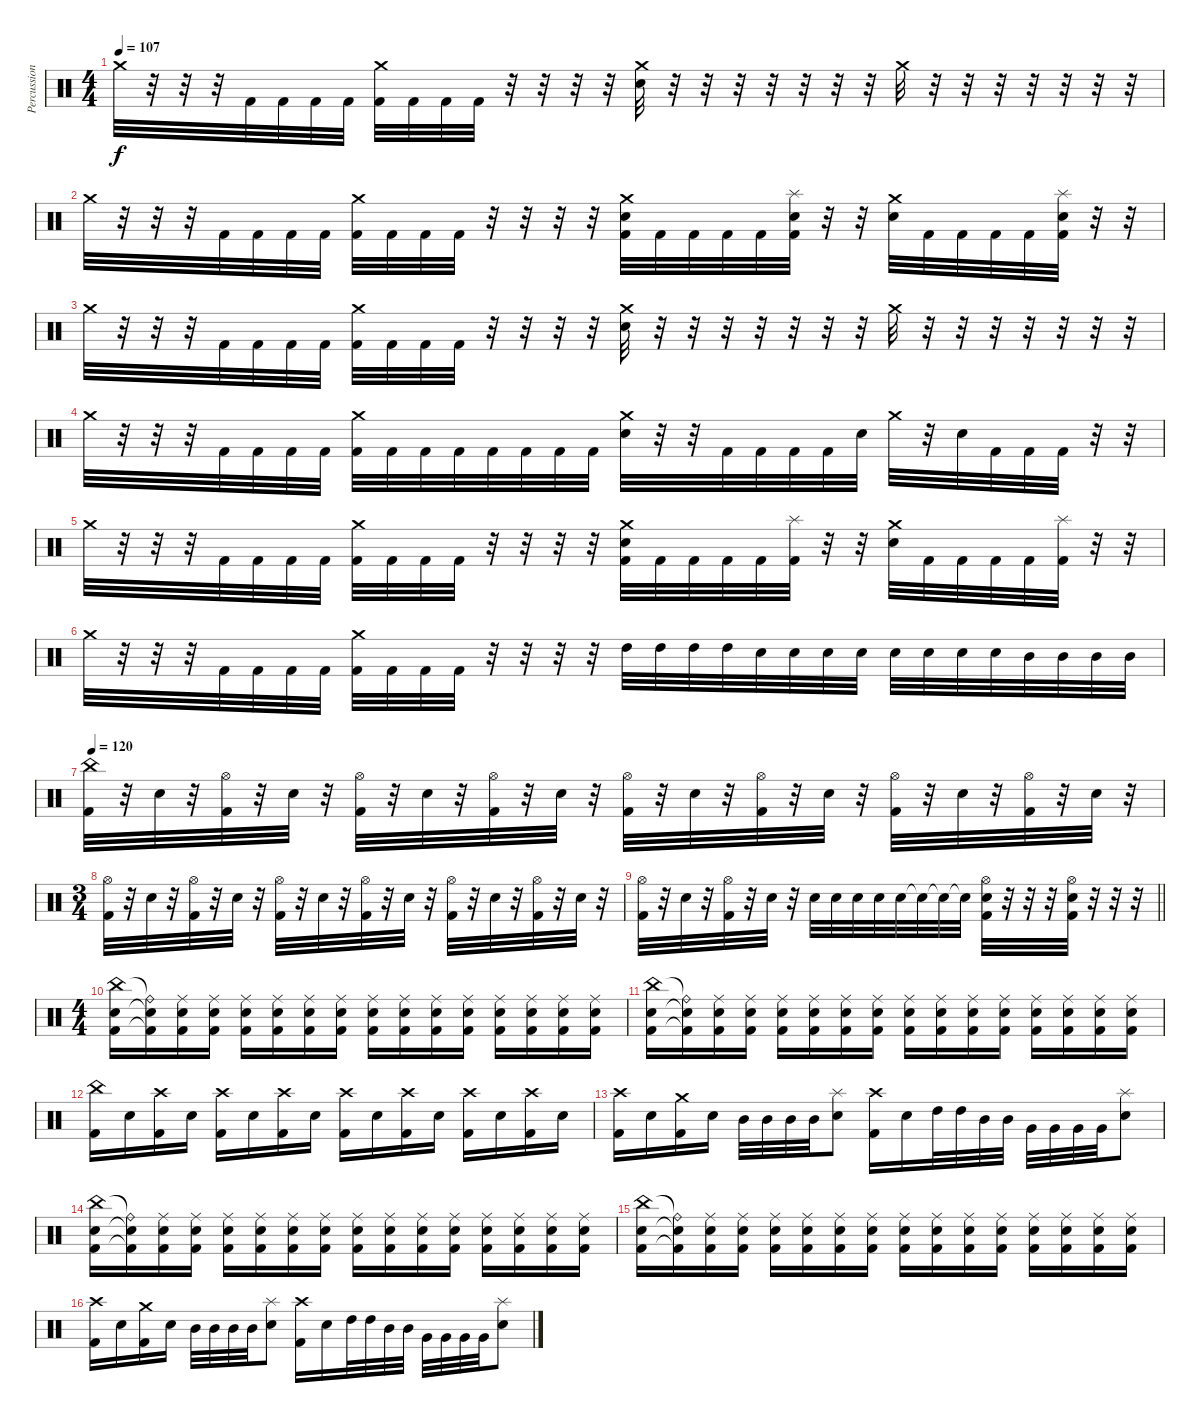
\track ("Percussion" "Percussion") {instrument percussion}
\staff {score}
\articulation defaults
\ts (4 4)
\tempo 107
\clef neutral
\ks c "Crash medium (hit)".32{dy f}
r.32 r.32 r.32 "Kick (hit) 2".32 "Kick (hit) 2".32 "Kick (hit) 2".32 "Kick (hit) 2".32 ("Kick (hit) 2" "Crash medium (hit)").32 "Kick (hit) 2".32 "Kick (hit) 2".32 "Kick (hit) 2".32 r.32 r.32 r.32 r.32 ("Electric Snare (hit)" "Crash medium (hit)").32 r.32 r.32 r.32 r.32 r.32 r.32 r.32 "Crash medium (hit)".32 r.32 r.32 r.32 r.32 r.32 r.32 r.32 |
"Crash medium (hit)".32 r.32 r.32 r.32 "Kick (hit) 2".32 "Kick (hit) 2".32 "Kick (hit) 2".32 "Kick (hit) 2".32 ("Kick (hit) 2" "Crash medium (hit)").32 "Kick (hit) 2".32 "Kick (hit) 2".32 "Kick (hit) 2".32 r.32 r.32 r.32 r.32 ("Kick (hit) 2" "Electric Snare (hit)" "Crash medium (hit)").32 "Kick (hit) 2".32 "Kick (hit) 2".32 "Kick (hit) 2".32 "Kick (hit) 2".32 ("Kick (hit) 2" "Electric Snare (hit)" "Splash (hit)").32 r.32 r.32 ("Electric Snare (hit)" "Crash medium (hit)").32 "Kick (hit) 2".32 "Kick (hit) 2".32 "Kick (hit) 2".32 "Kick (hit) 2".32 ("Kick (hit) 2" "Splash (hit)" "Electric Snare (hit)").32 r.32 r.32 |
"Crash medium (hit)".32 r.32 r.32 r.32 "Kick (hit) 2".32 "Kick (hit) 2".32 "Kick (hit) 2".32 "Kick (hit) 2".32 ("Kick (hit) 2" "Crash medium (hit)").32 "Kick (hit) 2".32 "Kick (hit) 2".32 "Kick (hit) 2".32 r.32 r.32 r.32 r.32 ("Electric Snare (hit)" "Crash medium (hit)").32 r.32 r.32 r.32 r.32 r.32 r.32 r.32 "Crash medium (hit)".32 r.32 r.32 r.32 r.32 r.32 r.32 r.32 |
"Crash medium (hit)".32 r.32 r.32 r.32 "Kick (hit) 2".32 "Kick (hit) 2".32 "Kick (hit) 2".32 "Kick (hit) 2".32 ("Kick (hit) 2" "Crash medium (hit)").32 "Kick (hit) 2".32 "Kick (hit) 2".32 "Kick (hit) 2".32 "Kick (hit) 2".32 "Kick (hit) 2".32 "Kick (hit) 2".32 "Kick (hit) 2".32 ("Electric Snare (hit)" "Crash medium (hit)").32 r.32 r.32 "Kick (hit) 2".32 "Kick (hit) 2".32 "Kick (hit) 2".32 "Kick (hit) 2".32 "Electric Snare (hit)".32 "Crash medium (hit)".32 r.32 "Electric Snare (hit)".32 "Kick (hit) 2".32 "Kick (hit) 2".32 "Kick (hit) 2".32 r.32 r.32 |
"Crash medium (hit)".32 r.32 r.32 r.32 "Kick (hit) 2".32 "Kick (hit) 2".32 "Kick (hit) 2".32 "Kick (hit) 2".32 ("Kick (hit) 2" "Crash medium (hit)").32 "Kick (hit) 2".32 "Kick (hit) 2".32 "Kick (hit) 2".32 r.32 r.32 r.32 r.32 ("Kick (hit) 2" "Electric Snare (hit)" "Crash medium (hit)").32 "Kick (hit) 2".32 "Kick (hit) 2".32 "Kick (hit) 2".32 "Kick (hit) 2".32 ("Kick (hit) 2" "Splash (hit)").32 r.32 r.32 ("Electric Snare (hit)" "Crash medium (hit)").32 "Kick (hit) 2".32 "Kick (hit) 2".32 "Kick (hit) 2".32 "Kick (hit) 2".32 ("Kick (hit) 2" "Splash (hit)").32 r.32 r.32 |
"Crash medium (hit)".32 r.32 r.32 r.32 "Kick (hit) 2".32 "Kick (hit) 2".32 "Kick (hit) 2".32 "Kick (hit) 2".32 ("Kick (hit) 2" "Crash medium (hit)").32 "Kick (hit) 2".32 "Kick (hit) 2".32 "Kick (hit) 2".32 r.32 r.32 r.32 r.32 "High Tom (hit)".32 "High Tom (hit)".32 "High Tom (hit)".32 "High Tom (hit)".32 "Electric Snare (hit)".32 "Electric Snare (hit)".32 "Electric Snare (hit)".32 "Electric Snare (hit)".32 "Electric Snare (hit)".32 "Electric Snare (hit)".32 "Electric Snare (hit)".32 "Electric Snare (hit)".32 "Mid Tom (hit)".32 "Mid Tom (hit)".32 "Mid Tom (hit)".32 "Mid Tom (hit)".32 |
\tempo 120
("China (hit)" "Kick (hit) 2").32 r.32 "Electric Snare (hit)".32 r.32 ("Hi-Hat (open)" "Kick (hit) 2").32 r.32 "Electric Snare (hit)".32 r.32 ("Hi-Hat (open)" "Kick (hit) 2").32 r.32 "Electric Snare (hit)".32 r.32 ("Hi-Hat (open)" "Kick (hit) 2").32 r.32 "Electric Snare (hit)".32 r.32 ("Hi-Hat (open)" "Kick (hit) 2").32 r.32 "Electric Snare (hit)".32 r.32 ("Hi-Hat (open)" "Kick (hit) 2").32 r.32 "Electric Snare (hit)".32 r.32 ("Hi-Hat (open)" "Kick (hit) 2").32 r.32 "Electric Snare (hit)".32 r.32 ("Hi-Hat (open)" "Kick (hit) 2").32 r.32 "Electric Snare (hit)".32 r.32 |
\ts (3 4)
("Kick (hit) 2" "Hi-Hat (open)").32 r.32 "Electric Snare (hit)".32 r.32 ("Kick (hit) 2" "Hi-Hat (open)").32 r.32 "Electric Snare (hit)".32 r.32 ("Kick (hit) 2" "Hi-Hat (open)").32 r.32 "Electric Snare (hit)".32 r.32 ("Kick (hit) 2" "Hi-Hat (open)").32 r.32 "Electric Snare (hit)".32 r.32 ("Kick (hit) 2" "Hi-Hat (open)").32 r.32 "Electric Snare (hit)".32 r.32 ("Kick (hit) 2" "Hi-Hat (open)").32 r.32 "Electric Snare (hit)".32 r.32 |
\barLineRight lightlight
("Kick (hit) 2" "Hi-Hat (open)").32 r.32 "Electric Snare (hit)".32 r.32 ("Kick (hit) 2" "Hi-Hat (open)").32 r.32 "Electric Snare (hit)".32 r.32 "Electric Snare (hit)".32 "Electric Snare (hit)".32 "Electric Snare (hit)".32 "Electric Snare (hit)".32 "Electric Snare (hit)".32 "Snare (hit)"{t}.32 "Snare (hit)"{t}.32 "Snare (hit)"{t}.32 ("Kick (hit) 2" "Hi-Hat (open)" "Electric Snare (hit)").32 r.32 r.32 r.32 ("Kick (hit) 2" "Electric Snare (hit)" "Hi-Hat (open)").32 r.32 r.32 r.32 |
\ts (4 4)
("China (hit)" "Electric Snare (hit)" "Kick (hit) 2").16 ("Ride (bell)"{t} "Electric Snare (hit)"{t} "Kick (hit) 2"{t}).16 ("Ride (middle)" "Electric Snare (hit)" "Kick (hit) 2").16 ("Ride (middle)" "Electric Snare (hit)" "Kick (hit) 2").16 ("Ride (middle)" "Electric Snare (hit)" "Kick (hit) 2").16 ("Ride (middle)" "Electric Snare (hit)" "Kick (hit) 2").16 ("Ride (middle)" "Electric Snare (hit)" "Kick (hit) 2").16 ("Ride (middle)" "Electric Snare (hit)" "Kick (hit) 2").16 ("Ride (middle)" "Electric Snare (hit)" "Kick (hit) 2").16 ("Ride (middle)" "Electric Snare (hit)" "Kick (hit) 2").16 ("Ride (middle)" "Electric Snare (hit)" "Kick (hit) 2").16 ("Ride (middle)" "Electric Snare (hit)" "Kick (hit) 2").16 ("Ride (middle)" "Electric Snare (hit)" "Kick (hit) 2").16 ("Ride (middle)" "Electric Snare (hit)" "Kick (hit) 2").16 ("Ride (middle)" "Electric Snare (hit)" "Kick (hit) 2").16 ("Ride (middle)" "Electric Snare (hit)" "Kick (hit) 2").16 |
("China (hit)" "Electric Snare (hit)" "Kick (hit) 2").16 ("Ride (bell)"{t} "Electric Snare (hit)"{t} "Kick (hit) 2"{t}).16 ("Ride (middle)" "Electric Snare (hit)" "Kick (hit) 2").16 ("Ride (middle)" "Electric Snare (hit)" "Kick (hit) 2").16 ("Ride (middle)" "Electric Snare (hit)" "Kick (hit) 2").16 ("Ride (middle)" "Electric Snare (hit)" "Kick (hit) 2").16 ("Ride (middle)" "Electric Snare (hit)" "Kick (hit) 2").16 ("Ride (middle)" "Electric Snare (hit)" "Kick (hit) 2").16 ("Ride (middle)" "Electric Snare (hit)" "Kick (hit) 2").16 ("Ride (middle)" "Electric Snare (hit)" "Kick (hit) 2").16 ("Ride (middle)" "Electric Snare (hit)" "Kick (hit) 2").16 ("Ride (middle)" "Electric Snare (hit)" "Kick (hit) 2").16 ("Ride (middle)" "Electric Snare (hit)" "Kick (hit) 2").16 ("Ride (middle)" "Electric Snare (hit)" "Kick (hit) 2").16 ("Ride (middle)" "Electric Snare (hit)" "Kick (hit) 2").16 ("Ride (middle)" "Electric Snare (hit)" "Kick (hit) 2").16 |
("China (hit)" "Kick (hit) 2").16 "Electric Snare (hit)".16 ("Crash high (hit)" "Kick (hit) 2").16 "Electric Snare (hit)".16 ("Crash high (hit)" "Kick (hit) 2").16 "Electric Snare (hit)".16 ("Crash high (hit)" "Kick (hit) 2").16 "Electric Snare (hit)".16 ("Crash high (hit)" "Kick (hit) 2").16 "Electric Snare (hit)".16 ("Crash high (hit)" "Kick (hit) 2").16 "Electric Snare (hit)".16 ("Crash high (hit)" "Kick (hit) 2").16 "Electric Snare (hit)".16 ("Crash high (hit)" "Kick (hit) 2").16 "Electric Snare (hit)".16 |
("Crash high (hit)" "Kick (hit) 2").16 "Electric Snare (hit)".16 ("Crash medium (hit)" "Kick (hit) 2").16 "Electric Snare (hit)".16 "Mid Tom (hit)".32 "Mid Tom (hit)".32 "Mid Tom (hit)".32 "Mid Tom (hit)".32 ("Electric Snare (hit)" "Splash (hit)").8 ("Crash high (hit)" "Kick (hit) 2").16 "Electric Snare (hit)".16 "High Tom (hit)".32 "High Tom (hit)".32 "Mid Tom (hit)".32 "Mid Tom (hit)".32 "Very Low Tom (hit)".32 "Very Low Tom (hit)".32 "Very Low Tom (hit)".32 "Very Low Tom (hit)".32 ("Splash (hit)" "Electric Snare (hit)").8 |
("China (hit)" "Electric Snare (hit)" "Kick (hit) 2").16 ("Ride (bell)"{t} "Electric Snare (hit)"{t} "Kick (hit) 2"{t}).16 ("Ride (middle)" "Electric Snare (hit)" "Kick (hit) 2").16 ("Ride (middle)" "Electric Snare (hit)" "Kick (hit) 2").16 ("Ride (middle)" "Electric Snare (hit)" "Kick (hit) 2").16 ("Ride (middle)" "Electric Snare (hit)" "Kick (hit) 2").16 ("Ride (middle)" "Electric Snare (hit)" "Kick (hit) 2").16 ("Ride (middle)" "Electric Snare (hit)" "Kick (hit) 2").16 ("Ride (middle)" "Electric Snare (hit)" "Kick (hit) 2").16 ("Ride (middle)" "Electric Snare (hit)" "Kick (hit) 2").16 ("Ride (middle)" "Electric Snare (hit)" "Kick (hit) 2").16 ("Ride (middle)" "Electric Snare (hit)" "Kick (hit) 2").16 ("Ride (middle)" "Electric Snare (hit)" "Kick (hit) 2").16 ("Ride (middle)" "Electric Snare (hit)" "Kick (hit) 2").16 ("Ride (middle)" "Electric Snare (hit)" "Kick (hit) 2").16 ("Ride (middle)" "Electric Snare (hit)" "Kick (hit) 2").16 |
("China (hit)" "Electric Snare (hit)" "Kick (hit) 2").16 ("Ride (bell)"{t} "Electric Snare (hit)"{t} "Kick (hit) 2"{t}).16 ("Ride (middle)" "Electric Snare (hit)" "Kick (hit) 2").16 ("Ride (middle)" "Electric Snare (hit)" "Kick (hit) 2").16 ("Ride (middle)" "Electric Snare (hit)" "Kick (hit) 2").16 ("Ride (middle)" "Electric Snare (hit)" "Kick (hit) 2").16 ("Ride (middle)" "Electric Snare (hit)" "Kick (hit) 2").16 ("Ride (middle)" "Electric Snare (hit)" "Kick (hit) 2").16 ("Ride (middle)" "Electric Snare (hit)" "Kick (hit) 2").16 ("Ride (middle)" "Electric Snare (hit)" "Kick (hit) 2").16 ("Ride (middle)" "Electric Snare (hit)" "Kick (hit) 2").16 ("Ride (middle)" "Electric Snare (hit)" "Kick (hit) 2").16 ("Ride (middle)" "Electric Snare (hit)" "Kick (hit) 2").16 ("Ride (middle)" "Electric Snare (hit)" "Kick (hit) 2").16 ("Ride (middle)" "Electric Snare (hit)" "Kick (hit) 2").16 ("Ride (middle)" "Electric Snare (hit)" "Kick (hit) 2").16 |
("Crash high (hit)" "Kick (hit) 2").16 "Electric Snare (hit)".16 ("Crash medium (hit)" "Kick (hit) 2").16 "Electric Snare (hit)".16 "Mid Tom (hit)".32 "Mid Tom (hit)".32 "Mid Tom (hit)".32 "Mid Tom (hit)".32 ("Electric Snare (hit)" "Splash (hit)").8 ("Crash high (hit)" "Kick (hit) 2").16 "Electric Snare (hit)".16 "High Tom (hit)".32 "High Tom (hit)".32 "Mid Tom (hit)".32 "Mid Tom (hit)".32 "Very Low Tom (hit)".32 "Very Low Tom (hit)".32 "Very Low Tom (hit)".32 "Very Low Tom (hit)".32 ("Splash (hit)" "Electric Snare (hit)").8
